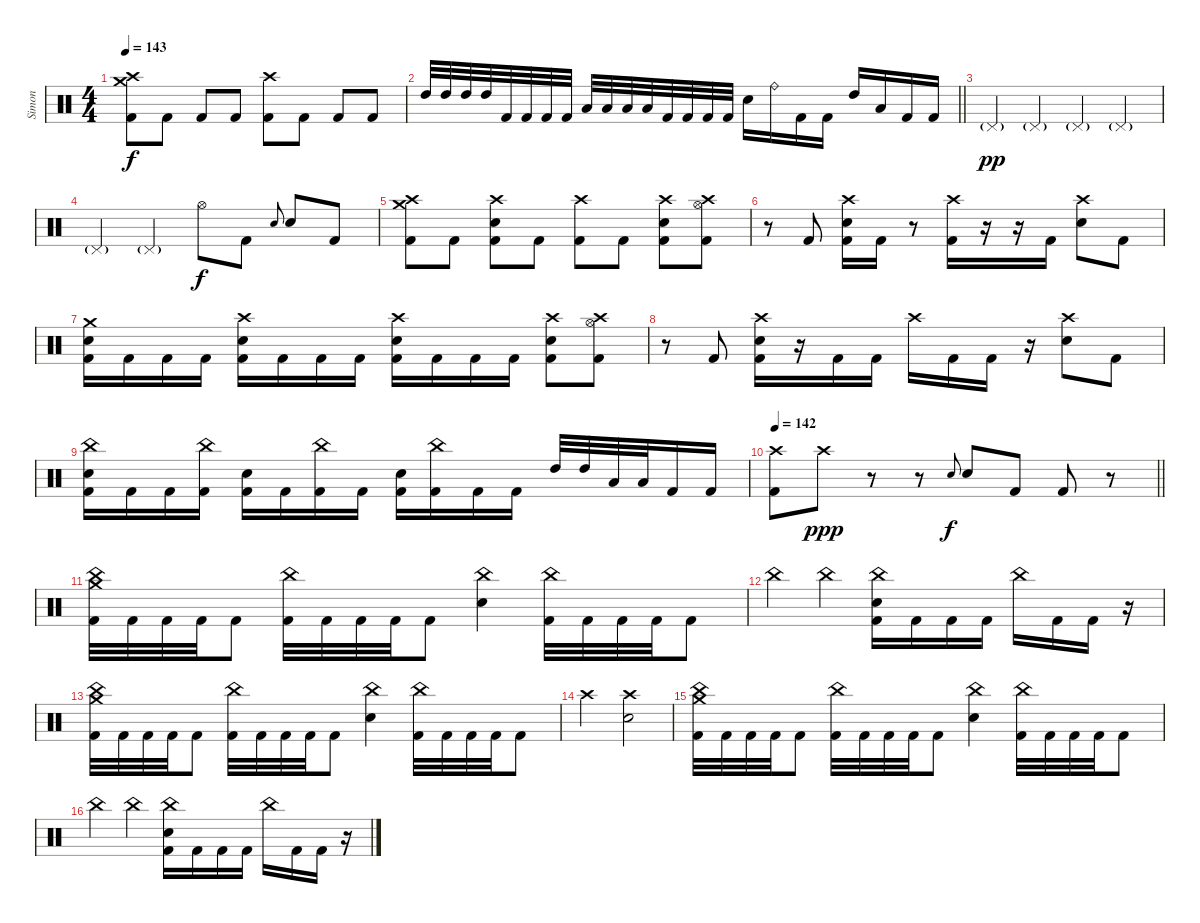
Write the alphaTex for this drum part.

\track ("Simon" "Simon") {instrument percussion}
\staff {score}
\articulation defaults
\ts (4 4)
\tempo 143
\clef neutral
\ks c
("Crash high (hit)" "Crash medium (hit)" "Kick (hit) 2").8{dy f} "Kick (hit) 2".8 "Kick (hit) 2".8 "Kick (hit) 2".8 ("Crash high (hit)" "Kick (hit) 2").8 "Kick (hit) 2".8 "Kick (hit) 2".8 "Kick (hit) 2".8 |
\barLineRight lightlight "High Tom (hit)".32 "High Tom (hit)".32 "High Tom (hit)".32 "High Tom (hit)".32 "Kick (hit) 2".32 "Kick (hit) 2".32 "Kick (hit) 2".32 "Kick (hit) 2".32 "Low Tom (hit)".32 "Low Tom (hit)".32 "Low Tom (hit)".32 "Low Tom (hit)".32 "Kick (hit) 2".32 "Kick (hit) 2".32 "Kick (hit) 2".32 "Kick (hit) 2".32 "Electric Snare (hit)".16 "Ride (bell)".16 "Kick (hit) 2".16 "Kick (hit) 2".16 "High Tom (hit)".16 "Low Tom (hit)".16 "Kick (hit) 2".16 "Kick (hit) 2".16
|
\section ("" "")
"Pedal Hi-Hat (hit)"{g}.4{dy pp} "Pedal Hi-Hat (hit)"{g}.4 "Pedal Hi-Hat (hit)"{g}.4 "Pedal Hi-Hat (hit)"{g}.4 |
"Pedal Hi-Hat (hit)"{g}.4 "Pedal Hi-Hat (hit)"{g}.4 "Hi-Hat (open)".8{dy f} "Kick (hit) 2".8 "Electric Snare (hit)".8{gr onbeat} "Electric Snare (hit)".8 "Kick (hit) 2".8 |
("Crash high (hit)" "Crash medium (hit)" "Kick (hit) 2").8 "Kick (hit) 2".8 ("Crash high (hit)" "Electric Snare (hit)" "Kick (hit) 2").8 "Kick (hit) 2".8 ("Crash high (hit)" "Kick (hit) 2").8 "Kick (hit) 2".8 ("Crash high (hit)" "Electric Snare (hit)" "Kick (hit) 2").8 ("Crash high (hit)" "Hi-Hat (open)" "Kick (hit) 2").8 |
r.8 "Kick (hit) 2".8 ("Crash high (hit)" "Electric Snare (hit)" "Kick (hit) 2").16 "Kick (hit) 2".16 r.8 ("Crash high (hit)" "Kick (hit) 2").16 r.16 r.16 "Kick (hit) 2".16 ("Crash high (hit)" "Electric Snare (hit)").8 "Kick (hit) 2".8 |
("Crash medium (hit)" "Electric Snare (hit)" "Kick (hit) 2").16 "Kick (hit) 2".16 "Kick (hit) 2".16 "Kick (hit) 2".16 ("Crash high (hit)" "Electric Snare (hit)" "Kick (hit) 2").16 "Kick (hit) 2".16 "Kick (hit) 2".16 "Kick (hit) 2".16 ("Crash high (hit)" "Electric Snare (hit)" "Kick (hit) 2").16 "Kick (hit) 2".16 "Kick (hit) 2".16 "Kick (hit) 2".16 ("Crash high (hit)" "Electric Snare (hit)" "Kick (hit) 2").8 ("Crash high (hit)" "Hi-Hat (open)" "Kick (hit) 2").8 |
r.8 "Kick (hit) 2".8 ("Crash high (hit)" "Electric Snare (hit)" "Kick (hit) 2").16 r.16 "Kick (hit) 2".16 "Kick (hit) 2".16 "Crash high (hit)".16 "Kick (hit) 2".16 "Kick (hit) 2".16 r.16 ("Crash high (hit)" "Electric Snare (hit)").8 "Kick (hit) 2".8 |
("China (hit)" "Electric Snare (hit)" "Kick (hit) 2").16 "Kick (hit) 2".16 "Kick (hit) 2".16 ("China (hit)" "Kick (hit) 2").16 ("Electric Snare (hit)" "Kick (hit) 2").16 "Kick (hit) 2".16 ("China (hit)" "Kick (hit) 2").16 "Kick (hit) 2".16 ("Electric Snare (hit)" "Kick (hit) 2").16 ("China (hit)" "Kick (hit) 2").16 "Kick (hit) 2".16 "Kick (hit) 2".16 "High Tom (hit)".32 "High Tom (hit)".32 "Low Tom (hit)".32 "Low Tom (hit)".32 "Kick (hit) 2".16 "Kick (hit) 2".16 |
\tempo 142
\barLineRight lightlight
("Crash high (hit)" "Kick (hit) 2").8 "Crash high (hit)".8{dy ppp} r.8 r.8 "Electric Snare (hit)".8{gr onbeat dy f} "Electric Snare (hit)".8 "Kick (hit) 2".8 "Kick (hit) 2".8 r.8 |
\section ("" "")
("China (hit)" "Crash medium (hit)" "Kick (hit) 2").32 "Kick (hit) 2".32 "Kick (hit) 2".32 "Kick (hit) 2".32 "Kick (hit) 2".8 ("China (hit)" "Kick (hit) 2").32 "Kick (hit) 2".32 "Kick (hit) 2".32 "Kick (hit) 2".32 "Kick (hit) 2".8 ("China (hit)" "Electric Snare (hit)").4 ("China (hit)" "Kick (hit) 2").32 "Kick (hit) 2".32 "Kick (hit) 2".32 "Kick (hit) 2".32 "Kick (hit) 2".8 |
"China (hit)".4 "China (hit)".4 ("China (hit)" "Electric Snare (hit)" "Kick (hit) 2").16 "Kick (hit) 2".16 "Kick (hit) 2".16 "Kick (hit) 2".16 "China (hit)".16 "Kick (hit) 2".16 "Kick (hit) 2".16 r.16 |
("China (hit)" "Crash medium (hit)" "Kick (hit) 2").32 "Kick (hit) 2".32 "Kick (hit) 2".32 "Kick (hit) 2".32 "Kick (hit) 2".8 ("China (hit)" "Kick (hit) 2").32 "Kick (hit) 2".32 "Kick (hit) 2".32 "Kick (hit) 2".32 "Kick (hit) 2".8 ("China (hit)" "Electric Snare (hit)").4 ("China (hit)" "Kick (hit) 2").32 "Kick (hit) 2".32 "Kick (hit) 2".32 "Kick (hit) 2".32 "Kick (hit) 2".8 |
"Crash high (hit)".2 ("Crash high (hit)" "Electric Snare (hit)").2 |
("China (hit)" "Crash medium (hit)" "Kick (hit) 2").32 "Kick (hit) 2".32 "Kick (hit) 2".32 "Kick (hit) 2".32 "Kick (hit) 2".8 ("China (hit)" "Kick (hit) 2").32 "Kick (hit) 2".32 "Kick (hit) 2".32 "Kick (hit) 2".32 "Kick (hit) 2".8 ("China (hit)" "Electric Snare (hit)").4 ("China (hit)" "Kick (hit) 2").32 "Kick (hit) 2".32 "Kick (hit) 2".32 "Kick (hit) 2".32 "Kick (hit) 2".8 |
"China (hit)".4 "China (hit)".4 ("China (hit)" "Electric Snare (hit)" "Kick (hit) 2").16 "Kick (hit) 2".16 "Kick (hit) 2".16 "Kick (hit) 2".16 "China (hit)".16 "Kick (hit) 2".16 "Kick (hit) 2".16 r.16
